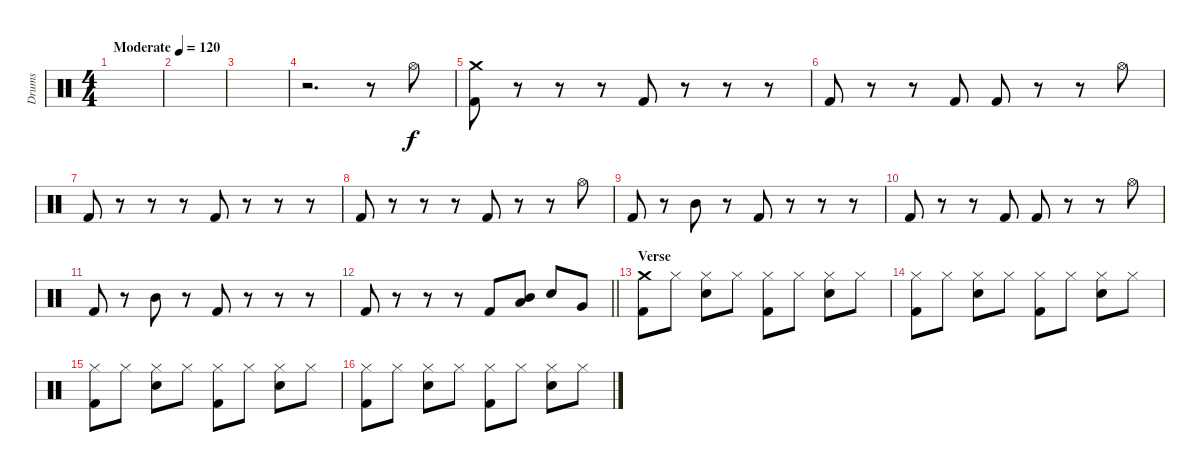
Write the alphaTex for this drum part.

\track ("Drums" "Drums") {instrument percussion}
\staff {score}
\articulation defaults
\ts (4 4)
\tempo (120 "Moderate")
\clef neutral
\ks c
|
|
|
r.2{d} r.8 "Hi-Hat (open)".8 |
("Crash medium (hit)" "Kick (hit) 2").8 r.8 r.8 r.8 "Kick (hit) 2".8 r.8 r.8 r.8 |
"Kick (hit) 2".8 r.8 r.8 "Kick (hit) 2".8 "Kick (hit) 2".8 r.8 r.8 "Hi-Hat (open)".8 |
"Kick (hit) 2".8 r.8 r.8 r.8 "Kick (hit) 2".8 r.8 r.8 r.8 |
"Kick (hit) 2".8 r.8 r.8 r.8 "Kick (hit) 2".8 r.8 r.8 "Hi-Hat (open)".8 |
"Kick (hit) 2".8 r.8 "Mid Tom (hit)".8 r.8 "Kick (hit) 2".8 r.8 r.8 r.8 |
"Kick (hit) 2".8 r.8 r.8 "Kick (hit) 2".8 "Kick (hit) 2".8 r.8 r.8 "Hi-Hat (open)".8 |
"Kick (hit) 2".8 r.8 "Mid Tom (hit)".8 r.8 "Kick (hit) 2".8 r.8 r.8 r.8 |
\barLineRight lightlight "Kick (hit) 2".8
r.8 r.8 r.8 "Kick (hit) 2".8 ("Mid Tom (hit)" "Low Tom (hit)").8 "Electric Snare (hit)".8 "Very Low Tom (hit)".8 |
\section ("" "Verse")
("Crash medium (hit)" "Kick (hit) 2").8 "Hi-Hat (closed)".8 ("Hi-Hat (closed)" "Electric Snare (hit)").8 "Hi-Hat (closed)".8 ("Hi-Hat (closed)" "Kick (hit) 2").8 "Hi-Hat (closed)".8 ("Hi-Hat (closed)" "Electric Snare (hit)").8 "Hi-Hat (closed)".8 |
("Hi-Hat (closed)" "Kick (hit) 2").8 "Hi-Hat (closed)".8 ("Hi-Hat (closed)" "Electric Snare (hit)").8 "Hi-Hat (closed)".8 ("Hi-Hat (closed)" "Kick (hit) 2").8 "Hi-Hat (closed)".8 ("Hi-Hat (closed)" "Electric Snare (hit)").8 "Hi-Hat (closed)".8 |
("Hi-Hat (closed)" "Kick (hit) 2").8 "Hi-Hat (closed)".8 ("Hi-Hat (closed)" "Electric Snare (hit)").8 "Hi-Hat (closed)".8 ("Hi-Hat (closed)" "Kick (hit) 2").8 "Hi-Hat (closed)".8 ("Hi-Hat (closed)" "Electric Snare (hit)").8 "Hi-Hat (closed)".8 |
("Hi-Hat (closed)" "Kick (hit) 2").8 "Hi-Hat (closed)".8 ("Hi-Hat (closed)" "Electric Snare (hit)").8 "Hi-Hat (closed)".8 ("Hi-Hat (closed)" "Kick (hit) 2").8 "Hi-Hat (closed)".8 ("Hi-Hat (closed)" "Electric Snare (hit)").8 "Hi-Hat (closed)".8
